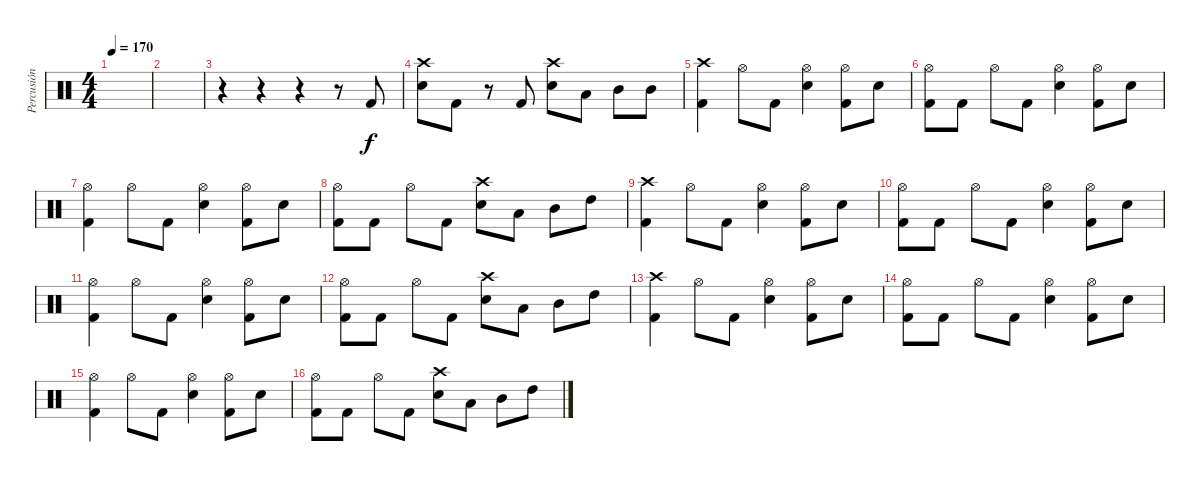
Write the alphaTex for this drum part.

\track ("Percusión" "Percusión") {instrument percussion}
\staff {score}
\articulation defaults
\ts (4 4)
\tempo 170
\clef neutral
\ks c
|
|
r.4 r.4 r.4 r.8 "Kick (hit) 2".8 |
("Snare (hit) 2" "Crash high (hit)").8 "Kick (hit) 2".8 r.8 "Kick (hit) 2".8 ("Snare (hit) 2" "Crash high (hit)").8 "Low Tom (hit)".8 "Mid Tom (hit)".8 "Mid Tom (hit)".8 |
("Kick (hit) 2" "Crash high (hit)").4 "Hi-Hat (open)".8 "Kick (hit) 2".8 ("Snare (hit) 2" "Hi-Hat (open)").4 ("Kick (hit) 2" "Hi-Hat (open)").8 "Snare (hit) 2".8 |
("Kick (hit) 2" "Hi-Hat (open)").8 "Kick (hit) 2".8 "Hi-Hat (open)".8 "Kick (hit) 2".8 ("Snare (hit) 2" "Hi-Hat (open)").4 ("Kick (hit) 2" "Hi-Hat (open)").8 "Snare (hit) 2".8 |
("Kick (hit) 2" "Hi-Hat (open)").4 "Hi-Hat (open)".8 "Kick (hit) 2".8 ("Snare (hit) 2" "Hi-Hat (open)").4 ("Kick (hit) 2" "Hi-Hat (open)").8 "Snare (hit) 2".8 |
("Kick (hit) 2" "Hi-Hat (open)").8 "Kick (hit) 2".8 "Hi-Hat (open)".8 "Kick (hit) 2".8 ("Snare (hit) 2" "Crash high (hit)").8 "Low Tom (hit)".8 "Mid Tom (hit)".8 "High Tom (hit)".8 |
("Kick (hit) 2" "Crash high (hit)").4 "Hi-Hat (open)".8 "Kick (hit) 2".8 ("Snare (hit) 2" "Hi-Hat (open)").4 ("Kick (hit) 2" "Hi-Hat (open)").8 "Snare (hit) 2".8 |
("Kick (hit) 2" "Hi-Hat (open)").8 "Kick (hit) 2".8 "Hi-Hat (open)".8 "Kick (hit) 2".8 ("Snare (hit) 2" "Hi-Hat (open)").4 ("Kick (hit) 2" "Hi-Hat (open)").8 "Snare (hit) 2".8 |
("Kick (hit) 2" "Hi-Hat (open)").4 "Hi-Hat (open)".8 "Kick (hit) 2".8 ("Snare (hit) 2" "Hi-Hat (open)").4 ("Kick (hit) 2" "Hi-Hat (open)").8 "Snare (hit) 2".8 |
("Kick (hit) 2" "Hi-Hat (open)").8 "Kick (hit) 2".8 "Hi-Hat (open)".8 "Kick (hit) 2".8 ("Snare (hit) 2" "Crash high (hit)").8 "Low Tom (hit)".8 "Mid Tom (hit)".8 "High Tom (hit)".8 |
("Kick (hit) 2" "Crash high (hit)").4 "Hi-Hat (open)".8 "Kick (hit) 2".8 ("Snare (hit) 2" "Hi-Hat (open)").4 ("Kick (hit) 2" "Hi-Hat (open)").8 "Snare (hit) 2".8 |
("Kick (hit) 2" "Hi-Hat (open)").8 "Kick (hit) 2".8 "Hi-Hat (open)".8 "Kick (hit) 2".8 ("Snare (hit) 2" "Hi-Hat (open)").4 ("Kick (hit) 2" "Hi-Hat (open)").8 "Snare (hit) 2".8 |
("Kick (hit) 2" "Hi-Hat (open)").4 "Hi-Hat (open)".8 "Kick (hit) 2".8 ("Snare (hit) 2" "Hi-Hat (open)").4 ("Kick (hit) 2" "Hi-Hat (open)").8 "Snare (hit) 2".8 |
("Kick (hit) 2" "Hi-Hat (open)").8 "Kick (hit) 2".8 "Hi-Hat (open)".8 "Kick (hit) 2".8 ("Snare (hit) 2" "Crash high (hit)").8 "Low Tom (hit)".8 "Mid Tom (hit)".8 "High Tom (hit)".8
